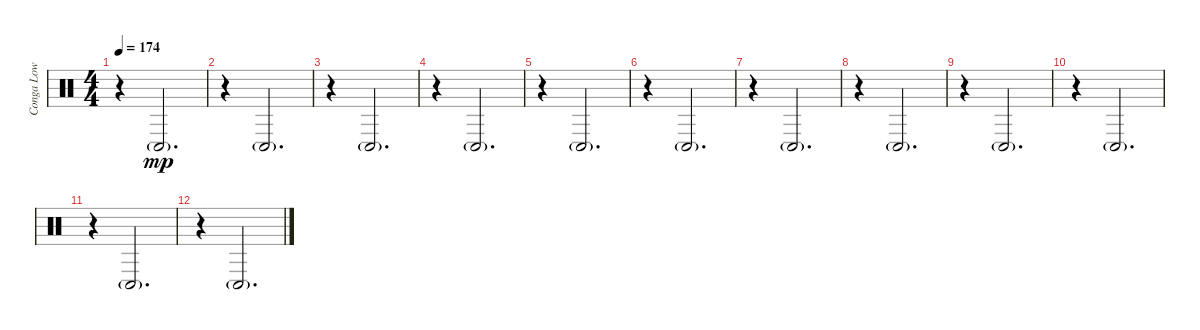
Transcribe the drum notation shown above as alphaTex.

\track ("Conga Low" "Conga Low") {instrument percussion}
\staff {score}
\articulation defaults
\ts (4 4)
\tempo 174
\clef neutral
\ks c
r.4{dy mp} "Conga low (hit)"{g}.2{d} |
r.4 "Conga low (hit)"{g}.2{d} |
r.4 "Conga low (hit)"{g}.2{d} |
r.4 "Conga low (hit)"{g}.2{d} |
r.4 "Conga low (hit)"{g}.2{d} |
r.4 "Conga low (hit)"{g}.2{d} |
r.4 "Conga low (hit)"{g}.2{d} |
r.4 "Conga low (hit)"{g}.2{d} |
r.4 "Conga low (hit)"{g}.2{d} |
r.4 "Conga low (hit)"{g}.2{d} |
r.4 "Conga low (hit)"{g}.2{d} |
r.4 "Conga low (hit)"{g}.2{d}
